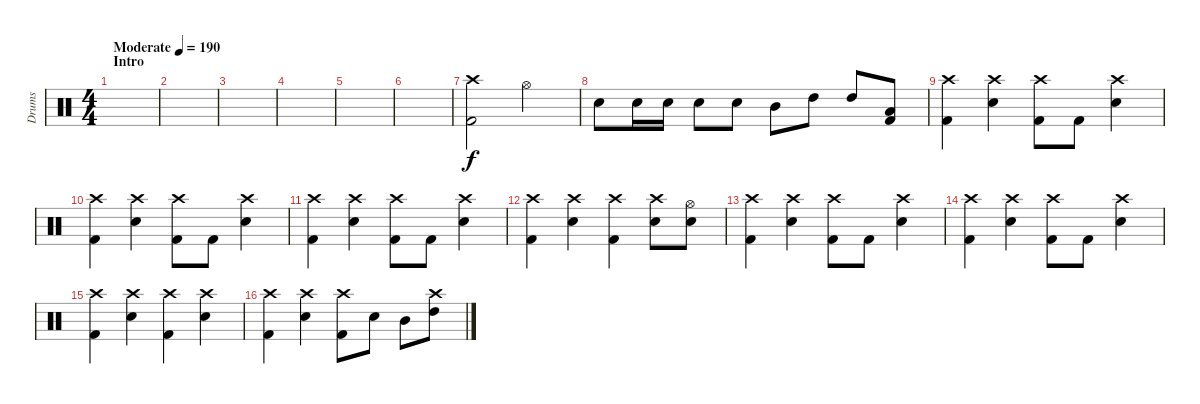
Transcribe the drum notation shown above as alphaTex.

\track ("Drums" "Drums") {instrument percussion}
\staff {score}
\articulation defaults
\ts (4 4)
\section ("" "Intro")
\tempo (190 "Moderate")
\clef neutral
\ks c
|
|
|
|
|
|
("Crash high (hit)" "Kick (hit) 2").2 "Hi-Hat (open)".2 |
"Electric Snare (hit)".8 "Electric Snare (hit)".16 "Electric Snare (hit)".16 "Electric Snare (hit)".8 "Electric Snare (hit)".8 "Mid Tom (hit)".8 "High Tom (hit)".8 "High Tom (hit)".8 ("Low Floor Tom (hit)" "Kick (hit) 2").8 |
("Crash high (hit)" "Kick (hit) 2").4 ("Crash high (hit)" "Electric Snare (hit)").4 ("Crash high (hit)" "Kick (hit) 2").8 "Kick (hit) 2".8 ("Crash high (hit)" "Electric Snare (hit)").4 |
("Crash high (hit)" "Kick (hit) 2").4 ("Crash high (hit)" "Electric Snare (hit)").4 ("Crash high (hit)" "Kick (hit) 2").8 "Kick (hit) 2".8 ("Crash high (hit)" "Electric Snare (hit)").4 |
("Crash high (hit)" "Kick (hit) 2").4 ("Crash high (hit)" "Electric Snare (hit)").4 ("Crash high (hit)" "Kick (hit) 2").8 "Kick (hit) 2".8 ("Crash high (hit)" "Electric Snare (hit)").4 |
("Crash high (hit)" "Kick (hit) 2").4 ("Crash high (hit)" "Electric Snare (hit)").4 ("Crash high (hit)" "Kick (hit) 2").4 ("Crash high (hit)" "Electric Snare (hit)").8 ("Hi-Hat (open)" "Electric Snare (hit)").8 |
("Crash high (hit)" "Kick (hit) 2").4 ("Crash high (hit)" "Electric Snare (hit)").4 ("Crash high (hit)" "Kick (hit) 2").8 "Kick (hit) 2".8 ("Crash high (hit)" "Electric Snare (hit)").4 |
("Crash high (hit)" "Kick (hit) 2").4 ("Crash high (hit)" "Electric Snare (hit)").4 ("Crash high (hit)" "Kick (hit) 2").8 "Kick (hit) 2".8 ("Crash high (hit)" "Electric Snare (hit)").4 |
("Crash high (hit)" "Kick (hit) 2").4 ("Crash high (hit)" "Electric Snare (hit)").4 ("Crash high (hit)" "Kick (hit) 2").4 ("Crash high (hit)" "Electric Snare (hit)").4 |
("Crash high (hit)" "Kick (hit) 2").4 ("Crash high (hit)" "Electric Snare (hit)").4 ("Crash high (hit)" "Kick (hit) 2").8 "Electric Snare (hit)".8 "Mid Tom (hit)".8 ("Crash high (hit)" "High Tom (hit)").8
